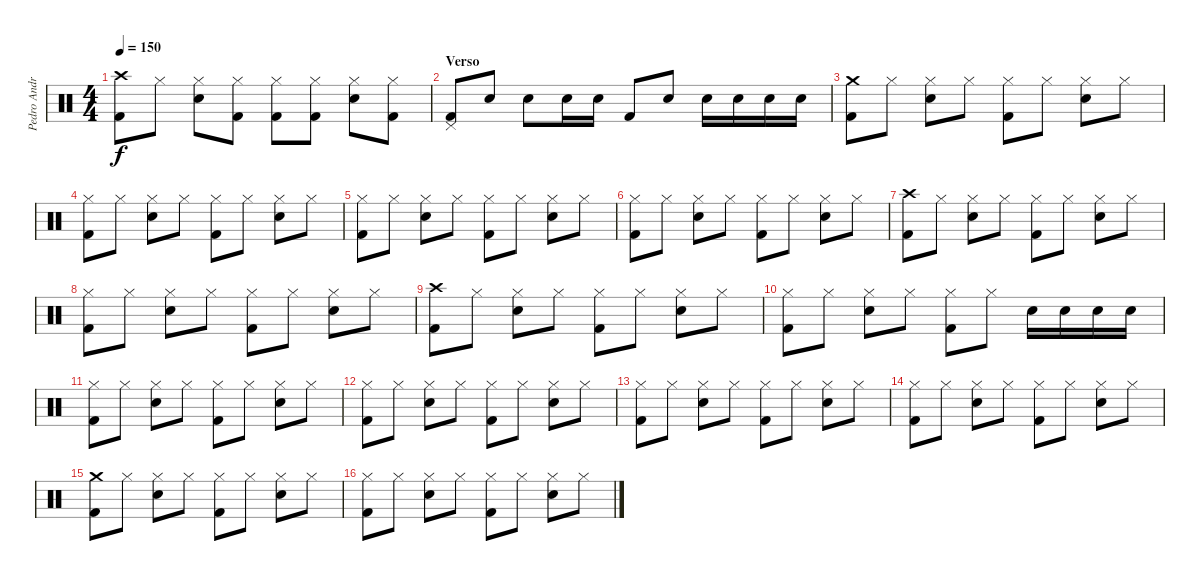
\track ("Pedro Andreu" "Pedro Andr") {instrument percussion}
\staff {score}
\articulation defaults
\ts (4 4)
\tempo 150
\clef neutral
\ks c
("Crash high (hit)" "Kick (hit) 2").8{dy f} "Hi-Hat (closed)".8 ("Hi-Hat (closed)" "Snare (hit) 2").8 ("Hi-Hat (closed)" "Kick (hit) 2").8 ("Hi-Hat (closed)" "Kick (hit) 2").8 ("Hi-Hat (closed)" "Kick (hit) 2").8 ("Hi-Hat (closed)" "Snare (hit) 2").8 ("Hi-Hat (closed)" "Kick (hit) 2").8 |
\section ("" "Verso")
("Pedal Hi-Hat (hit)" "Kick (hit) 2").8 "Snare (hit) 2".8 "Snare (hit) 2".8 "Snare (hit) 2".16 "Snare (hit) 2".16 "Kick (hit) 2".8 "Snare (hit) 2".8 "Snare (hit) 2".16 "Snare (hit) 2".16 "Snare (hit) 2".16 "Snare (hit) 2".16 |
("Crash medium (hit)" "Kick (hit) 2").8 "Hi-Hat (closed)".8 ("Hi-Hat (closed)" "Snare (hit) 2").8 "Hi-Hat (closed)".8 ("Hi-Hat (closed)" "Kick (hit) 2").8 "Hi-Hat (closed)".8 ("Hi-Hat (closed)" "Snare (hit) 2").8 "Hi-Hat (closed)".8 |
("Hi-Hat (closed)" "Kick (hit) 2").8 "Hi-Hat (closed)".8 ("Hi-Hat (closed)" "Snare (hit) 2").8 "Hi-Hat (closed)".8 ("Hi-Hat (closed)" "Kick (hit) 2").8 "Hi-Hat (closed)".8 ("Hi-Hat (closed)" "Snare (hit) 2").8 "Hi-Hat (closed)".8 |
("Hi-Hat (closed)" "Kick (hit) 2").8 "Hi-Hat (closed)".8 ("Hi-Hat (closed)" "Snare (hit) 2").8 "Hi-Hat (closed)".8 ("Hi-Hat (closed)" "Kick (hit) 2").8 "Hi-Hat (closed)".8 ("Hi-Hat (closed)" "Snare (hit) 2").8 "Hi-Hat (closed)".8 |
("Hi-Hat (closed)" "Kick (hit) 2").8 "Hi-Hat (closed)".8 ("Hi-Hat (closed)" "Snare (hit) 2").8 "Hi-Hat (closed)".8 ("Hi-Hat (closed)" "Kick (hit) 2").8 "Hi-Hat (closed)".8 ("Hi-Hat (closed)" "Snare (hit) 2").8 "Hi-Hat (closed)".8 |
("Crash high (hit)" "Kick (hit) 2").8 "Hi-Hat (closed)".8 ("Hi-Hat (closed)" "Snare (hit) 2").8 "Hi-Hat (closed)".8 ("Hi-Hat (closed)" "Kick (hit) 2").8 "Hi-Hat (closed)".8 ("Hi-Hat (closed)" "Snare (hit) 2").8 "Hi-Hat (closed)".8 |
("Hi-Hat (closed)" "Kick (hit) 2").8 "Hi-Hat (closed)".8 ("Hi-Hat (closed)" "Snare (hit) 2").8 "Hi-Hat (closed)".8 ("Hi-Hat (closed)" "Kick (hit) 2").8 "Hi-Hat (closed)".8 ("Hi-Hat (closed)" "Snare (hit) 2").8 "Hi-Hat (closed)".8 |
("Crash high (hit)" "Kick (hit) 2").8 "Hi-Hat (closed)".8 ("Hi-Hat (closed)" "Snare (hit) 2").8 "Hi-Hat (closed)".8 ("Hi-Hat (closed)" "Kick (hit) 2").8 "Hi-Hat (closed)".8 ("Hi-Hat (closed)" "Snare (hit) 2").8 "Hi-Hat (closed)".8 |
("Hi-Hat (closed)" "Kick (hit) 2").8 "Hi-Hat (closed)".8 ("Hi-Hat (closed)" "Snare (hit) 2").8 "Hi-Hat (closed)".8 ("Hi-Hat (closed)" "Kick (hit) 2").8 "Hi-Hat (closed)".8 "Snare (hit) 2".16 "Snare (hit) 2".16 "Snare (hit) 2".16 "Snare (hit) 2".16 |
("Hi-Hat (closed)" "Kick (hit) 2").8 "Hi-Hat (closed)".8 ("Hi-Hat (closed)" "Snare (hit) 2").8 "Hi-Hat (closed)".8 ("Hi-Hat (closed)" "Kick (hit) 2").8 "Hi-Hat (closed)".8 ("Hi-Hat (closed)" "Snare (hit) 2").8 "Hi-Hat (closed)".8 |
("Hi-Hat (closed)" "Kick (hit) 2").8 "Hi-Hat (closed)".8 ("Hi-Hat (closed)" "Snare (hit) 2").8 "Hi-Hat (closed)".8 ("Hi-Hat (closed)" "Kick (hit) 2").8 "Hi-Hat (closed)".8 ("Hi-Hat (closed)" "Snare (hit) 2").8 "Hi-Hat (closed)".8 |
("Hi-Hat (closed)" "Kick (hit) 2").8 "Hi-Hat (closed)".8 ("Hi-Hat (closed)" "Snare (hit) 2").8 "Hi-Hat (closed)".8 ("Hi-Hat (closed)" "Kick (hit) 2").8 "Hi-Hat (closed)".8 ("Hi-Hat (closed)" "Snare (hit) 2").8 "Hi-Hat (closed)".8 |
("Hi-Hat (closed)" "Kick (hit) 2").8 "Hi-Hat (closed)".8 ("Hi-Hat (closed)" "Snare (hit) 2").8 "Hi-Hat (closed)".8 ("Hi-Hat (closed)" "Kick (hit) 2").8 "Hi-Hat (closed)".8 ("Hi-Hat (closed)" "Snare (hit) 2").8 "Hi-Hat (closed)".8 |
("Crash medium (hit)" "Kick (hit) 2").8 "Hi-Hat (closed)".8 ("Hi-Hat (closed)" "Snare (hit) 2").8 "Hi-Hat (closed)".8 ("Hi-Hat (closed)" "Kick (hit) 2").8 "Hi-Hat (closed)".8 ("Hi-Hat (closed)" "Snare (hit) 2").8 "Hi-Hat (closed)".8 |
("Hi-Hat (closed)" "Kick (hit) 2").8 "Hi-Hat (closed)".8 ("Hi-Hat (closed)" "Snare (hit) 2").8 "Hi-Hat (closed)".8 ("Hi-Hat (closed)" "Kick (hit) 2").8 "Hi-Hat (closed)".8 ("Hi-Hat (closed)" "Snare (hit) 2").8 "Hi-Hat (closed)".8
